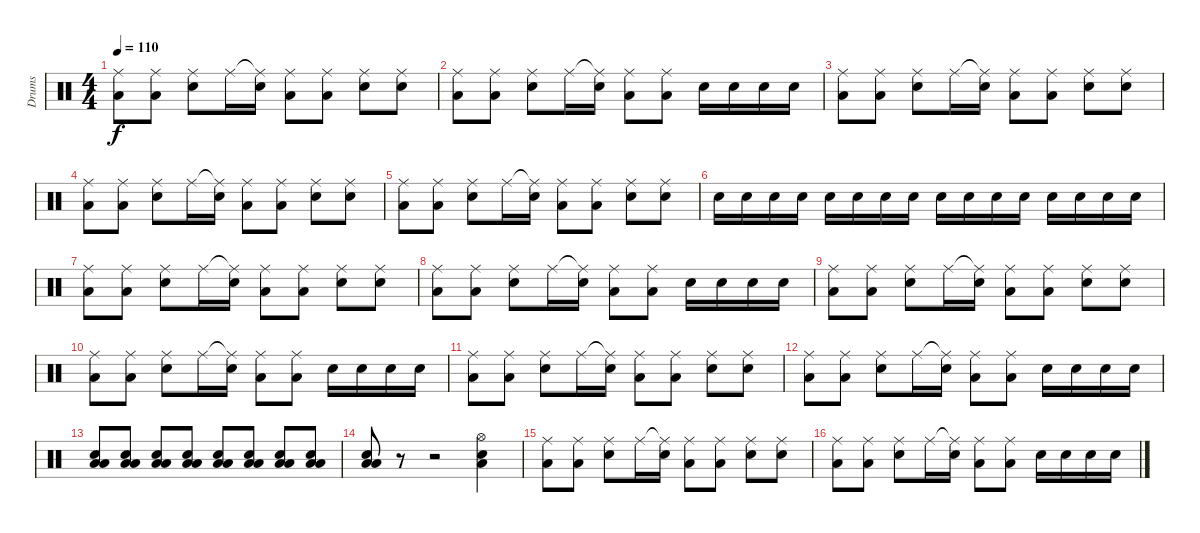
\track ("Drums" "Drums") {instrument percussion}
\staff {score}
\articulation defaults
\ts (4 4)
\tempo 110
\clef neutral
\ks c
("Ride (middle)" "Low Floor Tom (hit)").8{dy f} ("Ride (middle)" "Low Floor Tom (hit)").8 ("Ride (middle)" "Snare (hit) 2").8 "Ride (middle)".16 ("Ride (middle)"{t} "Snare (hit) 2").16 ("Ride (middle)" "Low Floor Tom (hit)").8 ("Ride (middle)" "Low Floor Tom (hit)").8 ("Ride (middle)" "Snare (hit) 2").8 ("Ride (middle)" "Snare (hit) 2").8 |
("Ride (middle)" "Low Floor Tom (hit)").8 ("Ride (middle)" "Low Floor Tom (hit)").8 ("Ride (middle)" "Snare (hit) 2").8 "Ride (middle)".16 ("Ride (middle)"{t} "Snare (hit) 2").16 ("Ride (middle)" "Low Floor Tom (hit)").8 ("Ride (middle)" "Low Floor Tom (hit)").8 "Snare (hit) 2".16 "Snare (hit) 2".16 "Snare (hit) 2".16 "Snare (hit) 2".16 |
("Ride (middle)" "Low Floor Tom (hit)").8 ("Ride (middle)" "Low Floor Tom (hit)").8 ("Ride (middle)" "Snare (hit) 2").8 "Ride (middle)".16 ("Ride (middle)"{t} "Snare (hit) 2").16 ("Ride (middle)" "Low Floor Tom (hit)").8 ("Ride (middle)" "Low Floor Tom (hit)").8 ("Ride (middle)" "Snare (hit) 2").8 ("Ride (middle)" "Snare (hit) 2").8 |
("Ride (middle)" "Low Floor Tom (hit)").8 ("Ride (middle)" "Low Floor Tom (hit)").8 ("Ride (middle)" "Snare (hit) 2").8 "Ride (middle)".16 ("Ride (middle)"{t} "Snare (hit) 2").16 ("Ride (middle)" "Low Floor Tom (hit)").8 ("Ride (middle)" "Low Floor Tom (hit)").8 ("Ride (middle)" "Snare (hit) 2").8 ("Ride (middle)" "Snare (hit) 2").8 |
("Ride (middle)" "Low Floor Tom (hit)").8 ("Ride (middle)" "Low Floor Tom (hit)").8 ("Ride (middle)" "Snare (hit) 2").8 "Ride (middle)".16 ("Ride (middle)"{t} "Snare (hit) 2").16 ("Ride (middle)" "Low Floor Tom (hit)").8 ("Ride (middle)" "Low Floor Tom (hit)").8 ("Ride (middle)" "Snare (hit) 2").8 ("Ride (middle)" "Snare (hit) 2").8 |
"Snare (hit) 2".16 "Snare (hit) 2".16 "Snare (hit) 2".16 "Snare (hit) 2".16 "Snare (hit) 2".16 "Snare (hit) 2".16 "Snare (hit) 2".16 "Snare (hit) 2".16 "Snare (hit) 2".16 "Snare (hit) 2".16 "Snare (hit) 2".16 "Snare (hit) 2".16 "Snare (hit) 2".16 "Snare (hit) 2".16 "Snare (hit) 2".16 "Snare (hit) 2".16 |
("Ride (middle)" "Low Floor Tom (hit)").8 ("Ride (middle)" "Low Floor Tom (hit)").8 ("Ride (middle)" "Snare (hit) 2").8 "Ride (middle)".16 ("Ride (middle)"{t} "Snare (hit) 2").16 ("Ride (middle)" "Low Floor Tom (hit)").8 ("Ride (middle)" "Low Floor Tom (hit)").8 ("Ride (middle)" "Snare (hit) 2").8 ("Ride (middle)" "Snare (hit) 2").8 |
("Ride (middle)" "Low Floor Tom (hit)").8 ("Ride (middle)" "Low Floor Tom (hit)").8 ("Ride (middle)" "Snare (hit) 2").8 "Ride (middle)".16 ("Ride (middle)"{t} "Snare (hit) 2").16 ("Ride (middle)" "Low Floor Tom (hit)").8 ("Ride (middle)" "Low Floor Tom (hit)").8 "Snare (hit) 2".16 "Snare (hit) 2".16 "Snare (hit) 2".16 "Snare (hit) 2".16 |
("Ride (middle)" "Low Floor Tom (hit)").8 ("Ride (middle)" "Low Floor Tom (hit)").8 ("Ride (middle)" "Snare (hit) 2").8 "Ride (middle)".16 ("Ride (middle)"{t} "Snare (hit) 2").16 ("Ride (middle)" "Low Floor Tom (hit)").8 ("Ride (middle)" "Low Floor Tom (hit)").8 ("Ride (middle)" "Snare (hit) 2").8 ("Ride (middle)" "Snare (hit) 2").8 |
("Ride (middle)" "Low Floor Tom (hit)").8 ("Ride (middle)" "Low Floor Tom (hit)").8 ("Ride (middle)" "Snare (hit) 2").8 "Ride (middle)".16 ("Ride (middle)"{t} "Snare (hit) 2").16 ("Ride (middle)" "Low Floor Tom (hit)").8 ("Ride (middle)" "Low Floor Tom (hit)").8 "Snare (hit) 2".16 "Snare (hit) 2".16 "Snare (hit) 2".16 "Snare (hit) 2".16 |
("Ride (middle)" "Low Floor Tom (hit)").8 ("Ride (middle)" "Low Floor Tom (hit)").8 ("Ride (middle)" "Snare (hit) 2").8 "Ride (middle)".16 ("Ride (middle)"{t} "Snare (hit) 2").16 ("Ride (middle)" "Low Floor Tom (hit)").8 ("Ride (middle)" "Low Floor Tom (hit)").8 ("Ride (middle)" "Snare (hit) 2").8 ("Ride (middle)" "Snare (hit) 2").8 |
("Ride (middle)" "Low Floor Tom (hit)").8 ("Ride (middle)" "Low Floor Tom (hit)").8 ("Ride (middle)" "Snare (hit) 2").8 "Ride (middle)".16 ("Ride (middle)"{t} "Snare (hit) 2").16 ("Ride (middle)" "Low Floor Tom (hit)").8 ("Ride (middle)" "Low Floor Tom (hit)").8 "Snare (hit) 2".16 "Snare (hit) 2".16 "Snare (hit) 2".16 "Snare (hit) 2".16 |
("Low Floor Tom (hit)" "Low Tom (hit)" "Snare (hit) 2").8 ("Low Floor Tom (hit)" "Low Tom (hit)" "Snare (hit) 2").8 ("Low Floor Tom (hit)" "Low Tom (hit)" "Snare (hit) 2").8 ("Low Floor Tom (hit)" "Low Tom (hit)" "Snare (hit) 2").8 ("Low Floor Tom (hit)" "Low Tom (hit)" "Snare (hit) 2").8 ("Low Floor Tom (hit)" "Low Tom (hit)" "Snare (hit) 2").8 ("Low Floor Tom (hit)" "Low Tom (hit)" "Snare (hit) 2").8 ("Low Floor Tom (hit)" "Low Tom (hit)" "Snare (hit) 2").8 |
("Low Floor Tom (hit)" "Low Tom (hit)" "Snare (hit) 2").8 r.8 r.2 ("Hi-Hat (open)" "Snare (hit) 2" "Low Floor Tom (hit)").4 |
("Ride (middle)" "Low Floor Tom (hit)").8 ("Ride (middle)" "Low Floor Tom (hit)").8 ("Ride (middle)" "Snare (hit) 2").8 "Ride (middle)".16 ("Ride (middle)"{t} "Snare (hit) 2").16 ("Ride (middle)" "Low Floor Tom (hit)").8 ("Ride (middle)" "Low Floor Tom (hit)").8 ("Ride (middle)" "Snare (hit) 2").8 ("Ride (middle)" "Snare (hit) 2").8 |
("Ride (middle)" "Low Floor Tom (hit)").8 ("Ride (middle)" "Low Floor Tom (hit)").8 ("Ride (middle)" "Snare (hit) 2").8 "Ride (middle)".16 ("Ride (middle)"{t} "Snare (hit) 2").16 ("Ride (middle)" "Low Floor Tom (hit)").8 ("Ride (middle)" "Low Floor Tom (hit)").8 "Snare (hit) 2".16 "Snare (hit) 2".16 "Snare (hit) 2".16 "Snare (hit) 2".16
